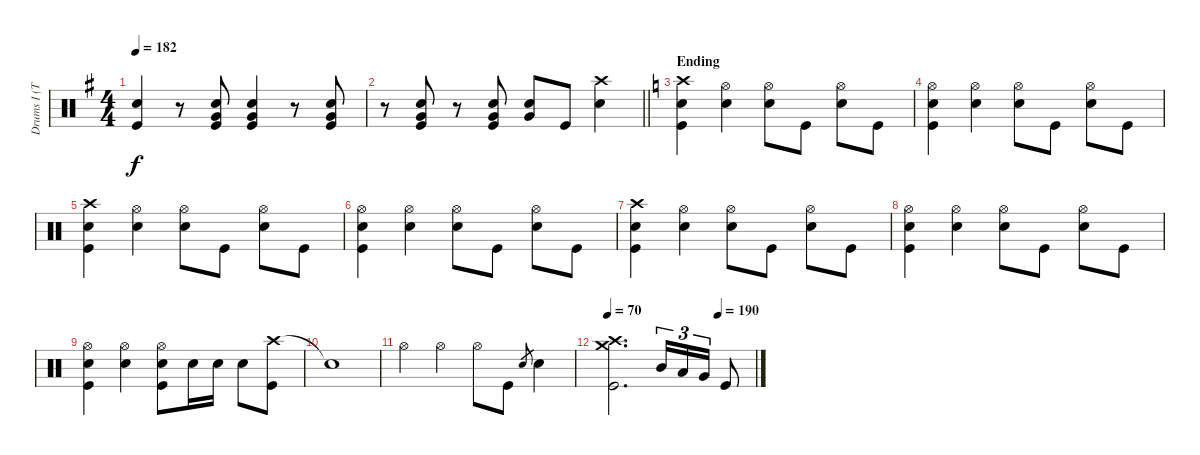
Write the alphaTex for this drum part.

\track ("Drums I (Tainaka Ritsu)" "Drums I (T") {instrument percussion}
\staff {score}
\articulation defaults
\ts (4 4)
\tempo 182
\clef neutral
\ks g
("Snare (hit) 2" "Kick (hit)").4{dy f} r.8 ("Snare (hit) 2" "Very Low Tom (hit)" "Kick (hit)").8 ("Snare (hit) 2" "Very Low Tom (hit)" "Kick (hit)").4 r.8 ("Snare (hit) 2" "Very Low Tom (hit)" "Kick (hit)").8 |
\barLineRight lightlight
r.8 ("Snare (hit) 2" "Very Low Tom (hit)" "Kick (hit)").8 r.8 ("Snare (hit) 2" "Very Low Tom (hit)" "Kick (hit)").8 ("Snare (hit) 2" "Very Low Tom (hit)").8 "Kick (hit)".8 ("Crash high (hit)" "Snare (hit) 2").4 |
\section ("" "Ending")
\ks c
("Crash high (hit)" "Snare (hit) 2" "Kick (hit)").4 ("Hi-Hat (open)" "Snare (hit) 2").4 ("Hi-Hat (open)" "Snare (hit) 2").8 "Kick (hit)".8 ("Hi-Hat (open)" "Snare (hit) 2").8 "Kick (hit)".8 |
("Hi-Hat (open)" "Snare (hit) 2" "Kick (hit)").4 ("Hi-Hat (open)" "Snare (hit) 2").4 ("Hi-Hat (open)" "Snare (hit) 2").8 "Kick (hit)".8 ("Hi-Hat (open)" "Snare (hit) 2").8 "Kick (hit)".8 |
("Crash high (hit)" "Snare (hit) 2" "Kick (hit)").4 ("Hi-Hat (open)" "Snare (hit) 2").4 ("Hi-Hat (open)" "Snare (hit) 2").8 "Kick (hit)".8 ("Hi-Hat (open)" "Snare (hit) 2").8 "Kick (hit)".8 |
("Hi-Hat (open)" "Snare (hit) 2" "Kick (hit)").4 ("Hi-Hat (open)" "Snare (hit) 2").4 ("Hi-Hat (open)" "Snare (hit) 2").8 "Kick (hit)".8 ("Hi-Hat (open)" "Snare (hit) 2").8 "Kick (hit)".8 |
("Crash high (hit)" "Snare (hit) 2" "Kick (hit)").4 ("Hi-Hat (open)" "Snare (hit) 2").4 ("Hi-Hat (open)" "Snare (hit) 2").8 "Kick (hit)".8 ("Hi-Hat (open)" "Snare (hit) 2").8 "Kick (hit)".8 |
("Hi-Hat (open)" "Snare (hit) 2" "Kick (hit)").4 ("Hi-Hat (open)" "Snare (hit) 2").4 ("Hi-Hat (open)" "Snare (hit) 2").8 "Kick (hit)".8 ("Hi-Hat (open)" "Snare (hit) 2").8 "Kick (hit)".8 |
("Hi-Hat (open)" "Snare (hit) 2" "Kick (hit)").4 ("Hi-Hat (open)" "Snare (hit) 2").4 ("Hi-Hat (open)" "Snare (hit) 2" "Kick (hit)").8 "Snare (hit) 2".16 "Snare (hit) 2".16 "Snare (hit) 2".8 ("Crash high (hit)" "Kick (hit)").8 |
"Snare (hit)"{t}.1 |
"Hi-Hat (open)".4 "Hi-Hat (open)".4 "Hi-Hat (open)".8 "Kick (hit)".8 "Snare (hit) 2".8{gr} "Snare (hit) 2".4 |
\tempo 70
\tempo (190 0.75)
("Crash high (hit)" "Crash medium (hit)" "Kick (hit)").2{d} "Mid Tom (hit)".16{tu (3 2)} "Low Tom (hit)".16{tu (3 2)} "Very Low Tom (hit)".16{tu (3 2)} "Kick (hit)".8
